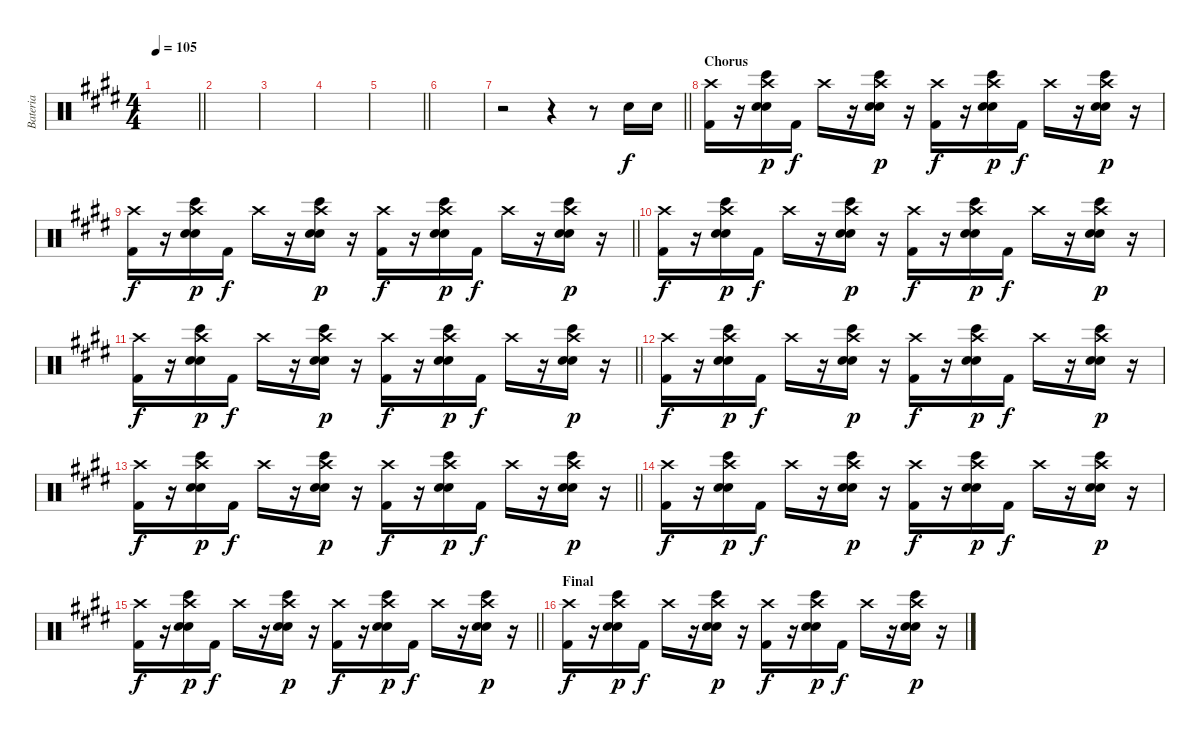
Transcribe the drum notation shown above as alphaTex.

\track ("Bateria" "Bateria") {instrument percussion}
\staff {score}
\articulation defaults
\ts (4 4)
\tempo 105
\clef neutral
\barLineRight lightlight
\ks c#minor
|
|
|
|
\barLineRight lightlight
|
|
\barLineRight lightlight
r.2 r.4 r.8 "Electric Snare (hit)".16 "Electric Snare (hit)".16 |
\section ("" "Chorus")
("Crash high (hit)" "Kick (hit) 2").16 r.16 ("Bongo High (hit)" "Crash high (hit)" "Electric Snare (hit)" "Snare (hit) 2").16{dy p} "Kick (hit) 2".16{dy f} "Crash high (hit)".16 r.16 ("Bongo High (hit)" "Crash high (hit)" "Electric Snare (hit)" "Snare (hit) 2").16{dy p} r.16 ("Crash high (hit)" "Kick (hit) 2").16{dy f} r.16 ("Bongo High (hit)" "Crash high (hit)" "Electric Snare (hit)" "Snare (hit) 2").16{dy p} "Kick (hit) 2".16{dy f} "Crash high (hit)".16 r.16 ("Bongo High (hit)" "Crash high (hit)" "Electric Snare (hit)" "Snare (hit) 2").16{dy p} r.16 |
\barLineRight lightlight
("Crash high (hit)" "Kick (hit) 2").16{dy f} r.16 ("Bongo High (hit)" "Crash high (hit)" "Electric Snare (hit)" "Snare (hit) 2").16{dy p} "Kick (hit) 2".16{dy f} "Crash high (hit)".16 r.16 ("Bongo High (hit)" "Crash high (hit)" "Electric Snare (hit)" "Snare (hit) 2").16{dy p} r.16 ("Crash high (hit)" "Kick (hit) 2").16{dy f} r.16 ("Bongo High (hit)" "Crash high (hit)" "Electric Snare (hit)" "Snare (hit) 2").16{dy p} "Kick (hit) 2".16{dy f} "Crash high (hit)".16 r.16 ("Bongo High (hit)" "Crash high (hit)" "Electric Snare (hit)" "Snare (hit) 2").16{dy p} r.16 |
("Crash high (hit)" "Kick (hit) 2").16{dy f} r.16 ("Bongo High (hit)" "Crash high (hit)" "Electric Snare (hit)" "Snare (hit) 2").16{dy p} "Kick (hit) 2".16{dy f} "Crash high (hit)".16 r.16 ("Bongo High (hit)" "Crash high (hit)" "Electric Snare (hit)" "Snare (hit) 2").16{dy p} r.16 ("Crash high (hit)" "Kick (hit) 2").16{dy f} r.16 ("Bongo High (hit)" "Crash high (hit)" "Electric Snare (hit)" "Snare (hit) 2").16{dy p} "Kick (hit) 2".16{dy f} "Crash high (hit)".16 r.16 ("Bongo High (hit)" "Crash high (hit)" "Electric Snare (hit)" "Snare (hit) 2").16{dy p} r.16 |
\barLineRight lightlight
("Crash high (hit)" "Kick (hit) 2").16{dy f} r.16 ("Bongo High (hit)" "Crash high (hit)" "Electric Snare (hit)" "Snare (hit) 2").16{dy p} "Kick (hit) 2".16{dy f} "Crash high (hit)".16 r.16 ("Bongo High (hit)" "Crash high (hit)" "Electric Snare (hit)" "Snare (hit) 2").16{dy p} r.16 ("Crash high (hit)" "Kick (hit) 2").16{dy f} r.16 ("Bongo High (hit)" "Crash high (hit)" "Electric Snare (hit)" "Snare (hit) 2").16{dy p} "Kick (hit) 2".16{dy f} "Crash high (hit)".16 r.16 ("Bongo High (hit)" "Crash high (hit)" "Electric Snare (hit)" "Snare (hit) 2").16{dy p} r.16 |
("Crash high (hit)" "Kick (hit) 2").16{dy f} r.16 ("Bongo High (hit)" "Crash high (hit)" "Electric Snare (hit)" "Snare (hit) 2").16{dy p} "Kick (hit) 2".16{dy f} "Crash high (hit)".16 r.16 ("Bongo High (hit)" "Crash high (hit)" "Electric Snare (hit)" "Snare (hit) 2").16{dy p} r.16 ("Crash high (hit)" "Kick (hit) 2").16{dy f} r.16 ("Bongo High (hit)" "Crash high (hit)" "Electric Snare (hit)" "Snare (hit) 2").16{dy p} "Kick (hit) 2".16{dy f} "Crash high (hit)".16 r.16 ("Bongo High (hit)" "Crash high (hit)" "Electric Snare (hit)" "Snare (hit) 2").16{dy p} r.16 |
\barLineRight lightlight
("Crash high (hit)" "Kick (hit) 2").16{dy f} r.16 ("Bongo High (hit)" "Crash high (hit)" "Electric Snare (hit)" "Snare (hit) 2").16{dy p} "Kick (hit) 2".16{dy f} "Crash high (hit)".16 r.16 ("Bongo High (hit)" "Crash high (hit)" "Electric Snare (hit)" "Snare (hit) 2").16{dy p} r.16 ("Crash high (hit)" "Kick (hit) 2").16{dy f} r.16 ("Bongo High (hit)" "Crash high (hit)" "Electric Snare (hit)" "Snare (hit) 2").16{dy p} "Kick (hit) 2".16{dy f} "Crash high (hit)".16 r.16 ("Bongo High (hit)" "Crash high (hit)" "Electric Snare (hit)" "Snare (hit) 2").16{dy p} r.16 |
("Crash high (hit)" "Kick (hit) 2").16{dy f} r.16 ("Bongo High (hit)" "Crash high (hit)" "Electric Snare (hit)" "Snare (hit) 2").16{dy p} "Kick (hit) 2".16{dy f} "Crash high (hit)".16 r.16 ("Bongo High (hit)" "Crash high (hit)" "Electric Snare (hit)" "Snare (hit) 2").16{dy p} r.16 ("Crash high (hit)" "Kick (hit) 2").16{dy f} r.16 ("Bongo High (hit)" "Crash high (hit)" "Electric Snare (hit)" "Snare (hit) 2").16{dy p} "Kick (hit) 2".16{dy f} "Crash high (hit)".16 r.16 ("Bongo High (hit)" "Crash high (hit)" "Electric Snare (hit)" "Snare (hit) 2").16{dy p} r.16 |
\barLineRight lightlight
("Crash high (hit)" "Kick (hit) 2").16{dy f} r.16 ("Bongo High (hit)" "Crash high (hit)" "Electric Snare (hit)" "Snare (hit) 2").16{dy p} "Kick (hit) 2".16{dy f} "Crash high (hit)".16 r.16 ("Bongo High (hit)" "Crash high (hit)" "Electric Snare (hit)" "Snare (hit) 2").16{dy p} r.16 ("Crash high (hit)" "Kick (hit) 2").16{dy f} r.16 ("Bongo High (hit)" "Crash high (hit)" "Electric Snare (hit)" "Snare (hit) 2").16{dy p} "Kick (hit) 2".16{dy f} "Crash high (hit)".16 r.16 ("Bongo High (hit)" "Crash high (hit)" "Electric Snare (hit)" "Snare (hit) 2").16{dy p} r.16 |
\section ("" "Final")
("Crash high (hit)" "Kick (hit) 2").16{dy f} r.16 ("Bongo High (hit)" "Crash high (hit)" "Electric Snare (hit)" "Snare (hit) 2").16{dy p} "Kick (hit) 2".16{dy f} "Crash high (hit)".16 r.16 ("Bongo High (hit)" "Crash high (hit)" "Electric Snare (hit)" "Snare (hit) 2").16{dy p} r.16 ("Crash high (hit)" "Kick (hit) 2").16{dy f} r.16 ("Bongo High (hit)" "Crash high (hit)" "Electric Snare (hit)" "Snare (hit) 2").16{dy p} "Kick (hit) 2".16{dy f} "Crash high (hit)".16 r.16 ("Bongo High (hit)" "Crash high (hit)" "Electric Snare (hit)" "Snare (hit) 2").16{dy p} r.16
